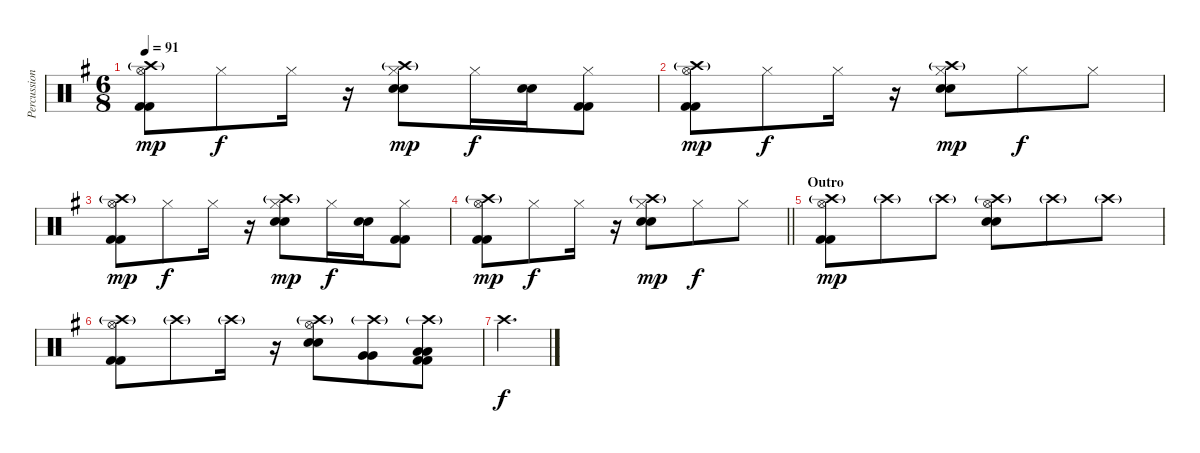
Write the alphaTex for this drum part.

\track ("Percussion" "Percussion") {instrument percussion}
\staff {score}
\articulation defaults
\ts (6 8)
\tempo 91
\clef neutral
\ks eminor
("Hi-Hat (open)" "Crash high (hit)"{g} "Kick (hit) 2" "Kick (hit) 2").8{dy mp} "Hi-Hat (closed)".8{dy f} "Hi-Hat (closed)".16 r.16 ("Hi-Hat (closed)" "Crash high (hit)"{g} "Snare (hit) 2" "Snare (hit) 2").8{dy mp} "Hi-Hat (closed)".16{dy f} ("Snare (hit) 2" "Snare (hit) 2").16 ("Hi-Hat (closed)" "Kick (hit) 2" "Kick (hit) 2").8 |
("Hi-Hat (open)" "Crash high (hit)"{g} "Kick (hit) 2" "Kick (hit) 2").8{dy mp} "Hi-Hat (closed)".8{dy f} "Hi-Hat (closed)".16 r.16 ("Hi-Hat (closed)" "Crash high (hit)"{g} "Snare (hit) 2" "Snare (hit) 2").8{dy mp} "Hi-Hat (closed)".8{dy f} "Hi-Hat (closed)".8 |
("Hi-Hat (open)" "Crash high (hit)"{g} "Kick (hit) 2" "Kick (hit) 2").8{dy mp} "Hi-Hat (closed)".8{dy f} "Hi-Hat (closed)".16 r.16 ("Hi-Hat (closed)" "Crash high (hit)"{g} "Snare (hit) 2" "Snare (hit) 2").8{dy mp} "Hi-Hat (closed)".16{dy f} ("Snare (hit) 2" "Snare (hit) 2").16 ("Hi-Hat (closed)" "Kick (hit) 2" "Kick (hit) 2").8 |
\barLineRight lightlight
("Hi-Hat (open)" "Crash high (hit)"{g} "Kick (hit) 2" "Kick (hit) 2").8{dy mp} "Hi-Hat (closed)".8{dy f} "Hi-Hat (closed)".16 r.16 ("Hi-Hat (closed)" "Crash high (hit)"{g} "Snare (hit) 2" "Snare (hit) 2").8{dy mp} "Hi-Hat (closed)".8{dy f} "Hi-Hat (closed)".8 |
\section ("" "Outro")
("Hi-Hat (open)" "Crash high (hit)"{g} "Kick (hit) 2" "Kick (hit) 2").8{dy mp} "Crash high (hit)"{g}.8 "Crash high (hit)"{g}.8 ("Hi-Hat (open)" "Crash high (hit)"{g} "Snare (hit) 2" "Snare (hit) 2").8 "Crash high (hit)"{g}.8 "Crash high (hit)"{g}.8 |
("Hi-Hat (open)" "Crash high (hit)"{g} "Kick (hit) 2" "Kick (hit) 2").8 "Crash high (hit)"{g}.8 "Crash high (hit)"{g}.16 r.16 ("Hi-Hat (open)" "Crash high (hit)"{g} "Snare (hit) 2" "Snare (hit) 2").8 ("Crash high (hit)"{g} "Very Low Tom (hit)" "Very Low Tom (hit)").8 ("Crash high (hit)"{g} "Low Floor Tom (hit)" "Low Floor Tom (hit)" "Kick (hit) 2" "Kick (hit) 2").8 |
"Crash high (hit)".2{d dy f}
